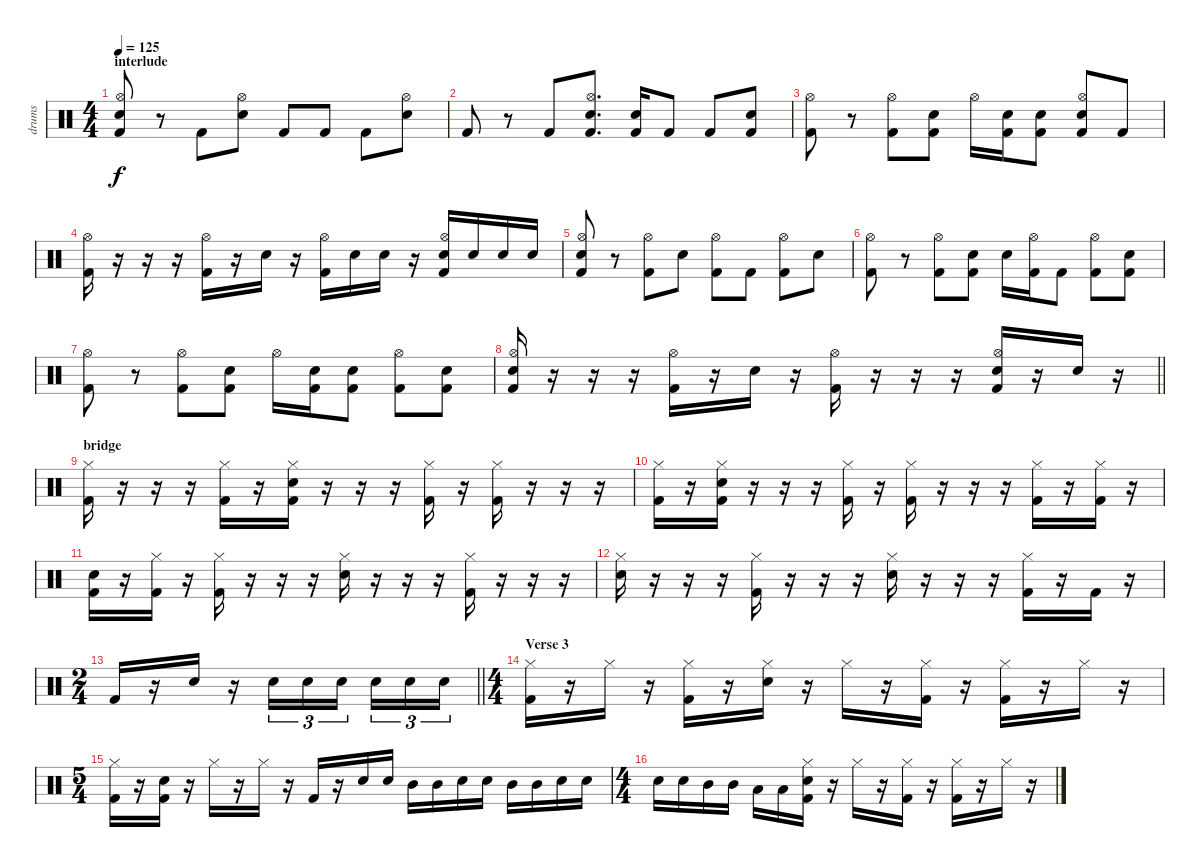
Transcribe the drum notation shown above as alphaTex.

\track ("drums" "drums") {instrument percussion}
\staff {score}
\articulation defaults
\ts (4 4)
\section ("" "interlude")
\tempo 125
\clef neutral
\ks c
("Electric Snare (hit)" "Hi-Hat (open)" "Kick (hit) 2").8{dy f} r.8 "Kick (hit) 2".8 ("Electric Snare (hit)" "Hi-Hat (open)").8 "Kick (hit) 2".8 "Kick (hit) 2".8 "Kick (hit) 2".8 ("Electric Snare (hit)" "Hi-Hat (open)").8 |
"Kick (hit) 2".8 r.8 "Kick (hit) 2".8 ("Electric Snare (hit)" "Hi-Hat (open)" "Kick (hit) 2").8{d} ("Electric Snare (hit)" "Kick (hit) 2").16 "Kick (hit) 2".8 "Kick (hit) 2".8 ("Electric Snare (hit)" "Kick (hit) 2").8 |
("Hi-Hat (open)" "Kick (hit) 2").8 r.8 ("Hi-Hat (open)" "Kick (hit) 2").8 ("Electric Snare (hit)" "Kick (hit) 2").8 "Hi-Hat (open)".16 ("Electric Snare (hit)" "Kick (hit) 2").16 ("Electric Snare (hit)" "Kick (hit) 2").8 ("Electric Snare (hit)" "Hi-Hat (open)" "Kick (hit) 2").8 "Kick (hit) 2".8 |
("Hi-Hat (open)" "Kick (hit) 2").16 r.16 r.16 r.16 ("Hi-Hat (open)" "Kick (hit) 2").16 r.16 "Electric Snare (hit)".16 r.16 ("Hi-Hat (open)" "Kick (hit) 2").16 "Electric Snare (hit)".16 "Electric Snare (hit)".16 r.16 ("Electric Snare (hit)" "Hi-Hat (open)" "Kick (hit) 2").16 "Electric Snare (hit)".16 "Electric Snare (hit)".16 "Electric Snare (hit)".16 |
("Electric Snare (hit)" "Hi-Hat (open)" "Kick (hit) 2").8 r.8 ("Hi-Hat (open)" "Kick (hit) 2").8 "Electric Snare (hit)".8 ("Hi-Hat (open)" "Kick (hit) 2").8 "Kick (hit) 2".8 ("Hi-Hat (open)" "Kick (hit) 2").8 "Electric Snare (hit)".8 |
("Hi-Hat (open)" "Kick (hit) 2").8 r.8 ("Hi-Hat (open)" "Kick (hit) 2").8 ("Electric Snare (hit)" "Kick (hit) 2").8 "Electric Snare (hit)".16 ("Hi-Hat (open)" "Kick (hit) 2").16 "Kick (hit) 2".8 ("Hi-Hat (open)" "Kick (hit) 2").8 ("Electric Snare (hit)" "Kick (hit) 2").8 |
("Hi-Hat (open)" "Kick (hit) 2").8 r.8 ("Hi-Hat (open)" "Kick (hit) 2").8 ("Electric Snare (hit)" "Kick (hit) 2").8 "Hi-Hat (open)".16 ("Electric Snare (hit)" "Kick (hit) 2").16 ("Electric Snare (hit)" "Kick (hit) 2").8 ("Hi-Hat (open)" "Kick (hit) 2").8 ("Electric Snare (hit)" "Kick (hit) 2").8 |
\barLineRight lightlight
("Electric Snare (hit)" "Hi-Hat (open)" "Kick (hit) 2").16 r.16 r.16 r.16 ("Hi-Hat (open)" "Kick (hit) 2").16 r.16 "Electric Snare (hit)".16 r.16 ("Hi-Hat (open)" "Kick (hit) 2").16 r.16 r.16 r.16 ("Electric Snare (hit)" "Hi-Hat (open)" "Kick (hit) 2").16 r.16 "Electric Snare (hit)".16 r.16 |
\section ("" "bridge")
("Hi-Hat (closed)" "Kick (hit) 2").16 r.16 r.16 r.16 ("Hi-Hat (closed)" "Kick (hit) 2").16 r.16 ("Electric Snare (hit)" "Hi-Hat (closed)" "Kick (hit) 2").16 r.16 r.16 r.16 ("Hi-Hat (closed)" "Kick (hit) 2").16 r.16 ("Hi-Hat (closed)" "Kick (hit) 2").16 r.16 r.16 r.16 |
("Hi-Hat (closed)" "Kick (hit) 2").16 r.16 ("Electric Snare (hit)" "Hi-Hat (closed)" "Kick (hit) 2").16 r.16 r.16 r.16 ("Hi-Hat (closed)" "Kick (hit) 2").16 r.16 ("Hi-Hat (closed)" "Kick (hit) 2").16 r.16 r.16 r.16 ("Hi-Hat (closed)" "Kick (hit) 2").16 r.16 ("Hi-Hat (closed)" "Kick (hit) 2").16 r.16 |
("Electric Snare (hit)" "Kick (hit) 2").16 r.16 ("Hi-Hat (closed)" "Kick (hit) 2").16 r.16 ("Hi-Hat (closed)" "Kick (hit) 2").16 r.16 r.16 r.16 ("Electric Snare (hit)" "Hi-Hat (closed)").16 r.16 r.16 r.16 ("Hi-Hat (closed)" "Kick (hit) 2").16 r.16 r.16 r.16 |
("Electric Snare (hit)" "Hi-Hat (closed)").16 r.16 r.16 r.16 ("Hi-Hat (closed)" "Kick (hit) 2").16 r.16 r.16 r.16 ("Electric Snare (hit)" "Hi-Hat (closed)").16 r.16 r.16 r.16 ("Hi-Hat (closed)" "Kick (hit) 2").16 r.16 "Kick (hit) 2".16 r.16 |
\ts (2 4)
\barLineRight lightlight "Kick (hit) 2".16
r.16 "Electric Snare (hit)".16 r.16 "Electric Snare (hit)".16{tu (3 2)} "Electric Snare (hit)".16{tu (3 2)} "Electric Snare (hit)".16{tu (3 2) beam splitsecondary} "Electric Snare (hit)".16{tu (3 2)} "Electric Snare (hit)".16{tu (3 2)} "Electric Snare (hit)".16{tu (3 2)} |
\ts (4 4)
\section ("" "Verse 3")
("Hi-Hat (closed)" "Kick (hit) 2").16 r.16 "Hi-Hat (closed)".16 r.16 ("Hi-Hat (closed)" "Kick (hit) 2").16 r.16 ("Electric Snare (hit)" "Hi-Hat (closed)").16 r.16 "Hi-Hat (closed)".16 r.16 ("Hi-Hat (closed)" "Kick (hit) 2").16 r.16 ("Hi-Hat (closed)" "Kick (hit) 2").16 r.16 "Hi-Hat (closed)".16 r.16 |
\ts (5 4)
("Hi-Hat (closed)" "Kick (hit) 2").16 r.16 ("Electric Snare (hit)" "Kick (hit) 2").16 r.16 "Hi-Hat (closed)".16 r.16 "Hi-Hat (closed)".16 r.16 "Kick (hit) 2".16 r.16 "Electric Snare (hit)".16 "Electric Snare (hit)".16 "Mid Tom (hit)".16 "Mid Tom (hit)".16 "Electric Snare (hit)".16 "Electric Snare (hit)".16 "Mid Tom (hit)".16 "Mid Tom (hit)".16 "Electric Snare (hit)".16 "Electric Snare (hit)".16 |
\ts (4 4)
"Electric Snare (hit)".16 "Electric Snare (hit)".16 "Mid Tom (hit)".16 "Mid Tom (hit)".16 "Low Tom (hit)".16 "Low Tom (hit)".16 ("Electric Snare (hit)" "Hi-Hat (closed)" "Kick (hit) 2").16 r.16 "Hi-Hat (closed)".16 r.16 ("Hi-Hat (closed)" "Kick (hit) 2").16 r.16 ("Hi-Hat (closed)" "Kick (hit) 2").16 r.16 "Hi-Hat (closed)".16 r.16
